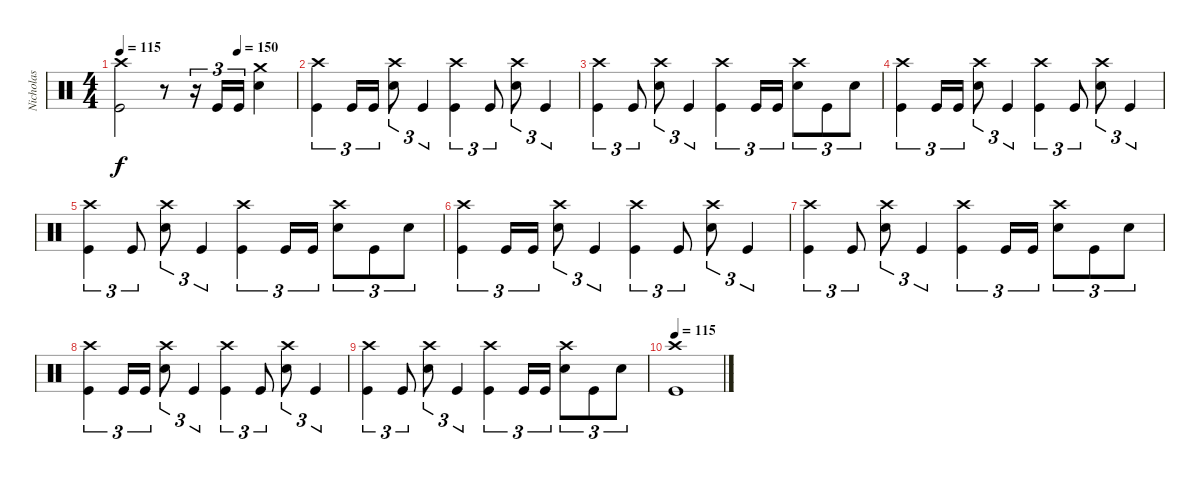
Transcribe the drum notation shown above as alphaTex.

\track ("Nicholas" "Nicholas") {instrument percussion}
\staff {score}
\articulation defaults
\ts (4 4)
\tempo 115
\tempo (150 0.6666666666666666)
\clef neutral
\ks c
("Crash high (hit)" "Kick (hit)").2{dy f} r.8 r.16{tu (3 2)} "Kick (hit)".16{tu (3 2)} "Kick (hit)".16{tu (3 2)} ("Crash medium (hit)" "Electric Snare (hit)").4 |
("Crash high (hit)" "Kick (hit)").4{tu (3 2)} "Kick (hit)".16{tu (3 2)} "Kick (hit)".16{tu (3 2)} ("Crash high (hit)" "Electric Snare (hit)").8{tu (3 2)} "Kick (hit)".4{tu (3 2)} ("Crash high (hit)" "Kick (hit)").4{tu (3 2)} "Kick (hit)".8{tu (3 2)} ("Crash high (hit)" "Electric Snare (hit)").8{tu (3 2)} "Kick (hit)".4{tu (3 2)} |
("Crash high (hit)" "Kick (hit)").4{tu (3 2)} "Kick (hit)".8{tu (3 2)} ("Crash high (hit)" "Electric Snare (hit)").8{tu (3 2)} "Kick (hit)".4{tu (3 2)} ("Crash high (hit)" "Kick (hit)").4{tu (3 2)} "Kick (hit)".16{tu (3 2)} "Kick (hit)".16{tu (3 2)} ("Crash high (hit)" "Electric Snare (hit)").8{tu (3 2)} "Kick (hit)".8{tu (3 2)} "Electric Snare (hit)".8{tu (3 2)} |
("Crash high (hit)" "Kick (hit)").4{tu (3 2)} "Kick (hit)".16{tu (3 2)} "Kick (hit)".16{tu (3 2)} ("Crash high (hit)" "Electric Snare (hit)").8{tu (3 2)} "Kick (hit)".4{tu (3 2)} ("Crash high (hit)" "Kick (hit)").4{tu (3 2)} "Kick (hit)".8{tu (3 2)} ("Crash high (hit)" "Electric Snare (hit)").8{tu (3 2)} "Kick (hit)".4{tu (3 2)} |
("Crash high (hit)" "Kick (hit)").4{tu (3 2)} "Kick (hit)".8{tu (3 2)} ("Crash high (hit)" "Electric Snare (hit)").8{tu (3 2)} "Kick (hit)".4{tu (3 2)} ("Crash high (hit)" "Kick (hit)").4{tu (3 2)} "Kick (hit)".16{tu (3 2)} "Kick (hit)".16{tu (3 2)} ("Crash high (hit)" "Electric Snare (hit)").8{tu (3 2)} "Kick (hit)".8{tu (3 2)} "Electric Snare (hit)".8{tu (3 2)} |
("Crash high (hit)" "Kick (hit)").4{tu (3 2)} "Kick (hit)".16{tu (3 2)} "Kick (hit)".16{tu (3 2)} ("Crash high (hit)" "Electric Snare (hit)").8{tu (3 2)} "Kick (hit)".4{tu (3 2)} ("Crash high (hit)" "Kick (hit)").4{tu (3 2)} "Kick (hit)".8{tu (3 2)} ("Crash high (hit)" "Electric Snare (hit)").8{tu (3 2)} "Kick (hit)".4{tu (3 2)} |
("Crash high (hit)" "Kick (hit)").4{tu (3 2)} "Kick (hit)".8{tu (3 2)} ("Crash high (hit)" "Electric Snare (hit)").8{tu (3 2)} "Kick (hit)".4{tu (3 2)} ("Crash high (hit)" "Kick (hit)").4{tu (3 2)} "Kick (hit)".16{tu (3 2)} "Kick (hit)".16{tu (3 2)} ("Crash high (hit)" "Electric Snare (hit)").8{tu (3 2)} "Kick (hit)".8{tu (3 2)} "Electric Snare (hit)".8{tu (3 2)} |
("Crash high (hit)" "Kick (hit)").4{tu (3 2)} "Kick (hit)".16{tu (3 2)} "Kick (hit)".16{tu (3 2)} ("Crash high (hit)" "Electric Snare (hit)").8{tu (3 2)} "Kick (hit)".4{tu (3 2)} ("Crash high (hit)" "Kick (hit)").4{tu (3 2)} "Kick (hit)".8{tu (3 2)} ("Crash high (hit)" "Electric Snare (hit)").8{tu (3 2)} "Kick (hit)".4{tu (3 2)} |
("Crash high (hit)" "Kick (hit)").4{tu (3 2)} "Kick (hit)".8{tu (3 2)} ("Crash high (hit)" "Electric Snare (hit)").8{tu (3 2)} "Kick (hit)".4{tu (3 2)} ("Crash high (hit)" "Kick (hit)").4{tu (3 2)} "Kick (hit)".16{tu (3 2)} "Kick (hit)".16{tu (3 2)} ("Crash high (hit)" "Electric Snare (hit)").8{tu (3 2)} "Kick (hit)".8{tu (3 2)} "Electric Snare (hit)".8{tu (3 2)} |
\tempo 115
("Crash high (hit)" "Kick (hit)").1
